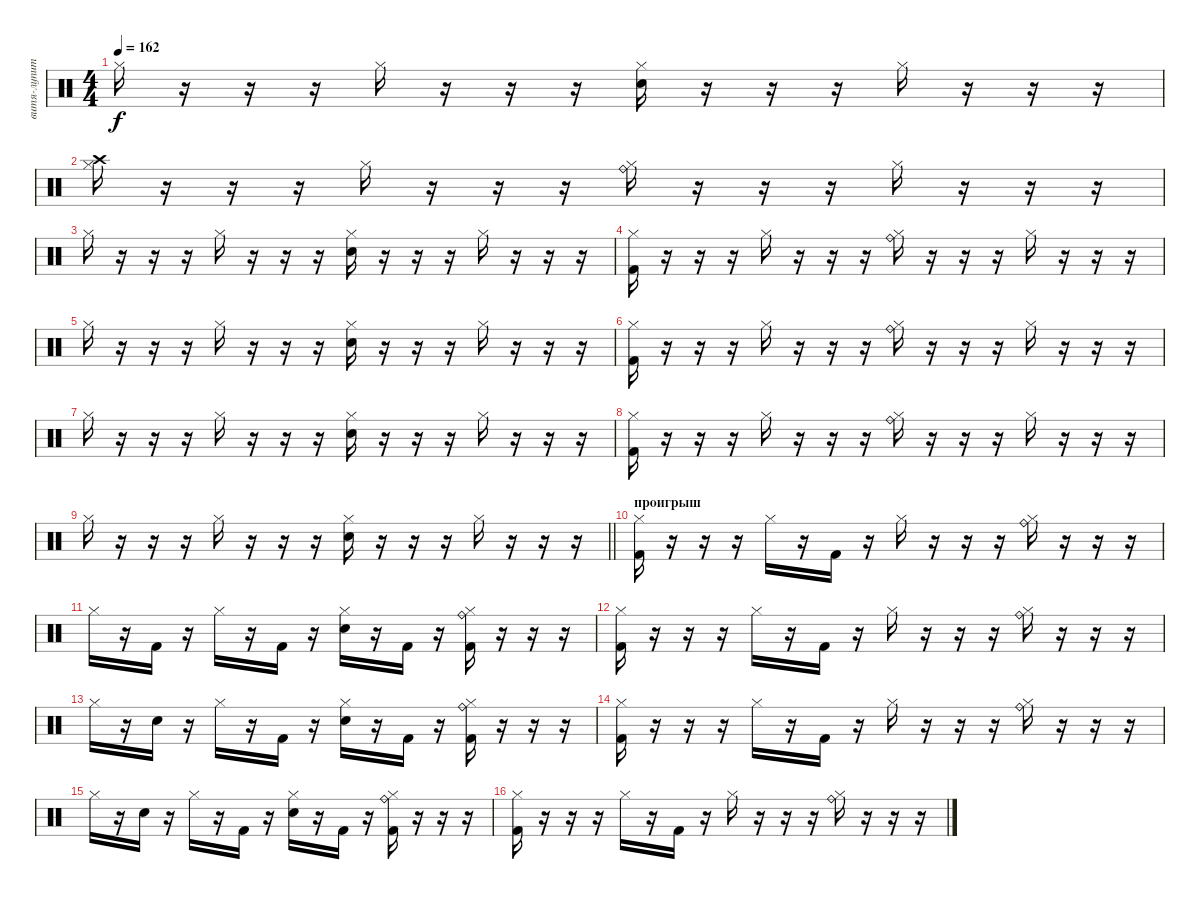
\track ("витя-лупит" "витя-лупит") {instrument percussion}
\staff {score}
\articulation defaults
\ts (4 4)
\tempo 162
\clef neutral
\ks c "Hi-Hat (closed)".16{dy f}
r.16 r.16 r.16 "Hi-Hat (closed)".16 r.16 r.16 r.16 ("Snare (hit) 2" "Hi-Hat (closed)").16 r.16 r.16 r.16 "Hi-Hat (closed)".16 r.16 r.16 r.16 |
("Crash high (hit)" "Hi-Hat (closed)").16 r.16 r.16 r.16 "Hi-Hat (closed)".16 r.16 r.16 r.16 ("Ride (bell)" "Hi-Hat (closed)").16 r.16 r.16 r.16 "Hi-Hat (closed)".16 r.16 r.16 r.16 |
"Hi-Hat (closed)".16 r.16 r.16 r.16 "Hi-Hat (closed)".16 r.16 r.16 r.16 ("Snare (hit) 2" "Hi-Hat (closed)").16 r.16 r.16 r.16 "Hi-Hat (closed)".16 r.16 r.16 r.16 |
("Kick (hit) 2" "Hi-Hat (closed)").16 r.16 r.16 r.16 "Hi-Hat (closed)".16 r.16 r.16 r.16 ("Ride (bell)" "Hi-Hat (closed)").16 r.16 r.16 r.16 "Hi-Hat (closed)".16 r.16 r.16 r.16 |
"Hi-Hat (closed)".16 r.16 r.16 r.16 "Hi-Hat (closed)".16 r.16 r.16 r.16 ("Snare (hit) 2" "Hi-Hat (closed)").16 r.16 r.16 r.16 "Hi-Hat (closed)".16 r.16 r.16 r.16 |
("Kick (hit) 2" "Hi-Hat (closed)").16 r.16 r.16 r.16 "Hi-Hat (closed)".16 r.16 r.16 r.16 ("Ride (bell)" "Hi-Hat (closed)").16 r.16 r.16 r.16 "Hi-Hat (closed)".16 r.16 r.16 r.16 |
"Hi-Hat (closed)".16 r.16 r.16 r.16 "Hi-Hat (closed)".16 r.16 r.16 r.16 ("Snare (hit) 2" "Hi-Hat (closed)").16 r.16 r.16 r.16 "Hi-Hat (closed)".16 r.16 r.16 r.16 |
("Kick (hit) 2" "Hi-Hat (closed)").16 r.16 r.16 r.16 "Hi-Hat (closed)".16 r.16 r.16 r.16 ("Ride (bell)" "Hi-Hat (closed)").16 r.16 r.16 r.16 "Hi-Hat (closed)".16 r.16 r.16 r.16 |
\barLineRight lightlight "Hi-Hat (closed)".16
r.16 r.16 r.16 "Hi-Hat (closed)".16 r.16 r.16 r.16 ("Snare (hit) 2" "Hi-Hat (closed)").16 r.16 r.16 r.16 "Hi-Hat (closed)".16 r.16 r.16 r.16 |
\section ("" "проигрыш")
("Kick (hit) 2" "Hi-Hat (closed)").16 r.16 r.16 r.16 "Hi-Hat (closed)".16 r.16 "Kick (hit) 2".16 r.16 "Hi-Hat (closed)".16 r.16 r.16 r.16 ("Ride (bell)" "Hi-Hat (closed)").16 r.16 r.16 r.16 |
"Hi-Hat (closed)".16 r.16 "Kick (hit) 2".16 r.16 "Hi-Hat (closed)".16 r.16 "Kick (hit) 2".16 r.16 ("Snare (hit) 2" "Hi-Hat (closed)").16 r.16 "Kick (hit) 2".16 r.16 ("Kick (hit) 2" "Ride (bell)" "Hi-Hat (closed)").16 r.16 r.16 r.16 |
("Kick (hit) 2" "Hi-Hat (closed)").16 r.16 r.16 r.16 "Hi-Hat (closed)".16 r.16 "Kick (hit) 2".16 r.16 "Hi-Hat (closed)".16 r.16 r.16 r.16 ("Ride (bell)" "Hi-Hat (closed)").16 r.16 r.16 r.16 |
"Hi-Hat (closed)".16 r.16 "Snare (hit) 2".16 r.16 "Hi-Hat (closed)".16 r.16 "Kick (hit) 2".16 r.16 ("Snare (hit) 2" "Hi-Hat (closed)").16 r.16 "Kick (hit) 2".16 r.16 ("Kick (hit) 2" "Ride (bell)" "Hi-Hat (closed)").16 r.16 r.16 r.16 |
("Kick (hit) 2" "Hi-Hat (closed)").16 r.16 r.16 r.16 "Hi-Hat (closed)".16 r.16 "Kick (hit) 2".16 r.16 "Hi-Hat (closed)".16 r.16 r.16 r.16 ("Ride (bell)" "Hi-Hat (closed)").16 r.16 r.16 r.16 |
"Hi-Hat (closed)".16 r.16 "Snare (hit) 2".16 r.16 "Hi-Hat (closed)".16 r.16 "Kick (hit) 2".16 r.16 ("Snare (hit) 2" "Hi-Hat (closed)").16 r.16 "Kick (hit) 2".16 r.16 ("Kick (hit) 2" "Ride (bell)" "Hi-Hat (closed)").16 r.16 r.16 r.16 |
("Kick (hit) 2" "Hi-Hat (closed)").16 r.16 r.16 r.16 "Hi-Hat (closed)".16 r.16 "Kick (hit) 2".16 r.16 "Hi-Hat (closed)".16 r.16 r.16 r.16 ("Ride (bell)" "Hi-Hat (closed)").16 r.16 r.16 r.16
